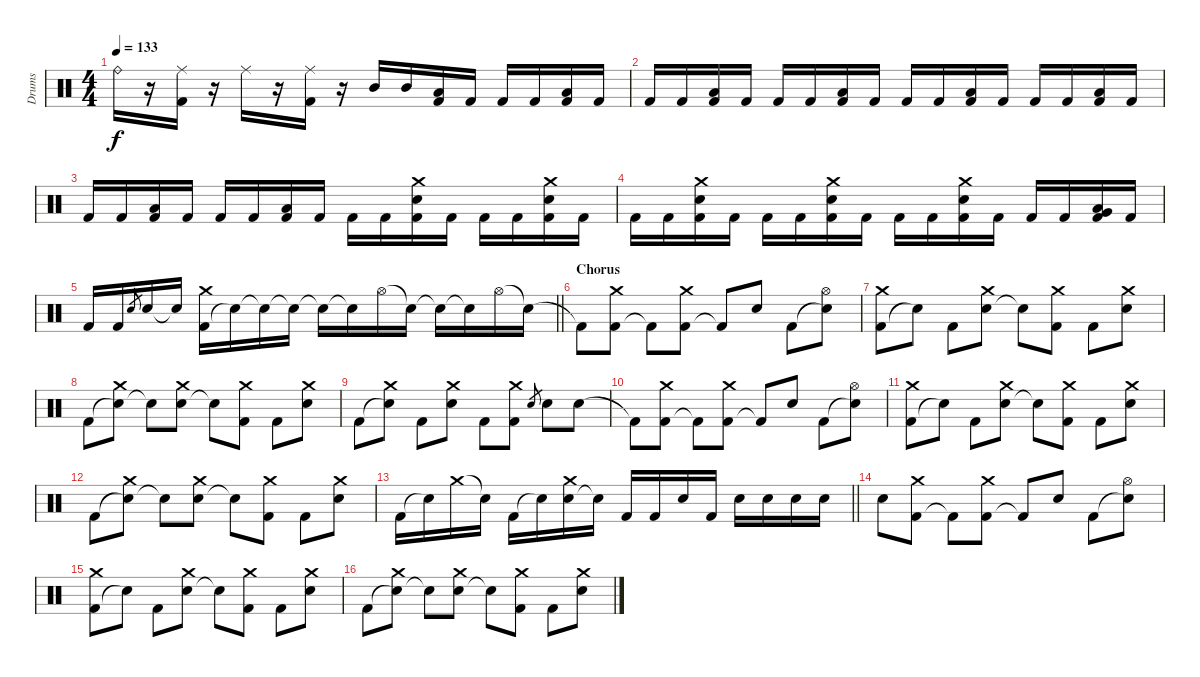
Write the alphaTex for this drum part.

\track ("Drums" "Drums") {instrument percussion}
\staff {score}
\articulation defaults
\ts (4 4)
\tempo 133
\clef neutral
\ks c "Ride (bell)".16{dy f}
r.16 ("Kick (hit) 2" "Ride (middle)").16 r.16 "Ride (middle)".16 r.16 ("Kick (hit) 2" "Ride (middle)").16 r.16 "Mid Tom (hit)".16 "Mid Tom (hit)".16 ("Kick (hit) 2" "Low Tom (hit)").16 "Kick (hit) 2".16 "Kick (hit) 2".16 "Kick (hit) 2".16 ("Kick (hit) 2" "Low Tom (hit)").16 "Kick (hit) 2".16 |
"Kick (hit) 2".16 "Kick (hit) 2".16 ("Kick (hit) 2" "Low Tom (hit)").16 "Kick (hit) 2".16 "Kick (hit) 2".16 "Kick (hit) 2".16 ("Kick (hit) 2" "Low Tom (hit)").16 "Kick (hit) 2".16 "Kick (hit) 2".16 "Kick (hit) 2".16 ("Kick (hit) 2" "Low Tom (hit)").16 "Kick (hit) 2".16 "Kick (hit) 2".16 "Kick (hit) 2".16 ("Kick (hit) 2" "Low Tom (hit)").16 "Kick (hit) 2".16 |
"Kick (hit) 2".16 "Kick (hit) 2".16 ("Kick (hit) 2" "Low Tom (hit)").16 "Kick (hit) 2".16 "Kick (hit) 2".16 "Kick (hit) 2".16 ("Kick (hit) 2" "Low Tom (hit)").16 "Kick (hit) 2".16 "Kick (hit) 2".16 "Kick (hit) 2".16 ("Kick (hit) 2" "Electric Snare (hit)" "Crash medium (hit)").16 "Kick (hit) 2".16 "Kick (hit) 2".16 "Kick (hit) 2".16 ("Kick (hit) 2" "Electric Snare (hit)" "Crash medium (hit)").16 "Kick (hit) 2".16 |
"Kick (hit) 2".16 "Kick (hit) 2".16 ("Kick (hit) 2" "Electric Snare (hit)" "Crash medium (hit)").16 "Kick (hit) 2".16 "Kick (hit) 2".16 "Kick (hit) 2".16 ("Kick (hit) 2" "Electric Snare (hit)" "Crash medium (hit)").16 "Kick (hit) 2".16 "Kick (hit) 2".16 "Kick (hit) 2".16 ("Kick (hit) 2" "Electric Snare (hit)" "Crash medium (hit)").16 "Kick (hit) 2".16 "Kick (hit) 2".16 "Kick (hit) 2".16 ("Kick (hit) 2" "Low Tom (hit)" "Very Low Tom (hit)").16 "Kick (hit) 2".16 |
\barLineRight lightlight "Kick (hit) 2".16 "Kick (hit) 2".16 "Electric Snare (hit)".8{gr} "Electric Snare (hit)".16 "Snare (hit)"{t}.16
("Kick (hit) 2" "Crash medium (hit)").16 "Snare (hit)"{t}.16 "Snare (hit)"{t}.16 "Snare (hit)"{t}.16 "Snare (hit)"{t}.16 "Snare (hit)"{t}.16 "Hi-Hat (open)".16 "Snare (hit)"{t}.16 "Snare (hit)"{t}.16 "Snare (hit)"{t}.16 "Hi-Hat (open)".16 "Snare (hit)"{t}.16 |
\section ("" "Chorus")
"Kick (hit) 2"{t}.8 ("Kick (hit) 2" "Crash medium (hit)").8 "Kick (hit) 2"{t}.8 ("Kick (hit) 2" "Crash medium (hit)").8 "Kick (hit) 2"{t}.8 "Electric Snare (hit)".8 "Kick (hit) 2".8 ("Snare (hit)"{t} "Hi-Hat (open)").8 |
("Kick (hit) 2" "Crash medium (hit)").8 "Snare (hit)"{t}.8 "Kick (hit) 2".8 ("Electric Snare (hit)" "Crash medium (hit)").8 "Snare (hit)"{t}.8 ("Kick (hit) 2" "Crash medium (hit)").8 "Kick (hit) 2".8 ("Electric Snare (hit)" "Crash medium (hit)").8 |
"Kick (hit) 2".8 ("Snare (hit)"{t} "Crash medium (hit)").8 "Snare (hit)"{t}.8 ("Electric Snare (hit)" "Crash medium (hit)").8 "Snare (hit)"{t}.8 ("Kick (hit) 2" "Crash medium (hit)").8 "Kick (hit) 2".8 ("Electric Snare (hit)" "Crash medium (hit)").8 |
"Kick (hit) 2".8 ("Snare (hit)"{t} "Crash medium (hit)").8 "Kick (hit) 2".8 ("Electric Snare (hit)" "Crash medium (hit)").8 "Kick (hit) 2".8 ("Kick (hit) 2" "Crash medium (hit)").8 "Electric Snare (hit)".8{gr} "Electric Snare (hit)".8 "Electric Snare (hit)".8 |
"Kick (hit) 2"{t}.8 ("Kick (hit) 2" "Crash medium (hit)").8 "Kick (hit) 2"{t}.8 ("Kick (hit) 2" "Crash medium (hit)").8 "Kick (hit) 2"{t}.8 "Electric Snare (hit)".8 "Kick (hit) 2".8 ("Snare (hit)"{t} "Hi-Hat (open)").8 |
("Kick (hit) 2" "Crash medium (hit)").8 "Snare (hit)"{t}.8 "Kick (hit) 2".8 ("Electric Snare (hit)" "Crash medium (hit)").8 "Snare (hit)"{t}.8 ("Kick (hit) 2" "Crash medium (hit)").8 "Kick (hit) 2".8 ("Electric Snare (hit)" "Crash medium (hit)").8 |
"Kick (hit) 2".8 ("Snare (hit)"{t} "Crash medium (hit)").8 "Snare (hit)"{t}.8 ("Electric Snare (hit)" "Crash medium (hit)").8 "Snare (hit)"{t}.8 ("Kick (hit) 2" "Crash medium (hit)").8 "Kick (hit) 2".8 ("Electric Snare (hit)" "Crash medium (hit)").8 |
\barLineRight lightlight "Kick (hit) 2".16 "Snare (hit)"{t}.16 "Crash medium (hit)".16 "Snare (hit)"{t}.16 "Kick (hit) 2".16 "Snare (hit)"{t}.16
("Electric Snare (hit)" "Crash medium (hit)").16 "Snare (hit)"{t}.16 "Kick (hit) 2".16 "Kick (hit) 2".16 "Electric Snare (hit)".16 "Kick (hit) 2".16 "Electric Snare (hit)".16 "Electric Snare (hit)".16 "Electric Snare (hit)".16 "Electric Snare (hit)".16 |
"Electric Snare (hit)".8 ("Kick (hit) 2" "Crash medium (hit)").8 "Kick (hit) 2"{t}.8 ("Kick (hit) 2" "Crash medium (hit)").8 "Kick (hit) 2"{t}.8 "Electric Snare (hit)".8 "Kick (hit) 2".8 ("Snare (hit)"{t} "Hi-Hat (open)").8 |
("Kick (hit) 2" "Crash medium (hit)").8 "Snare (hit)"{t}.8 "Kick (hit) 2".8 ("Electric Snare (hit)" "Crash medium (hit)").8 "Snare (hit)"{t}.8 ("Kick (hit) 2" "Crash medium (hit)").8 "Kick (hit) 2".8 ("Electric Snare (hit)" "Crash medium (hit)").8 |
"Kick (hit) 2".8 ("Snare (hit)"{t} "Crash medium (hit)").8 "Snare (hit)"{t}.8 ("Electric Snare (hit)" "Crash medium (hit)").8 "Snare (hit)"{t}.8 ("Kick (hit) 2" "Crash medium (hit)").8 "Kick (hit) 2".8 ("Electric Snare (hit)" "Crash medium (hit)").8
